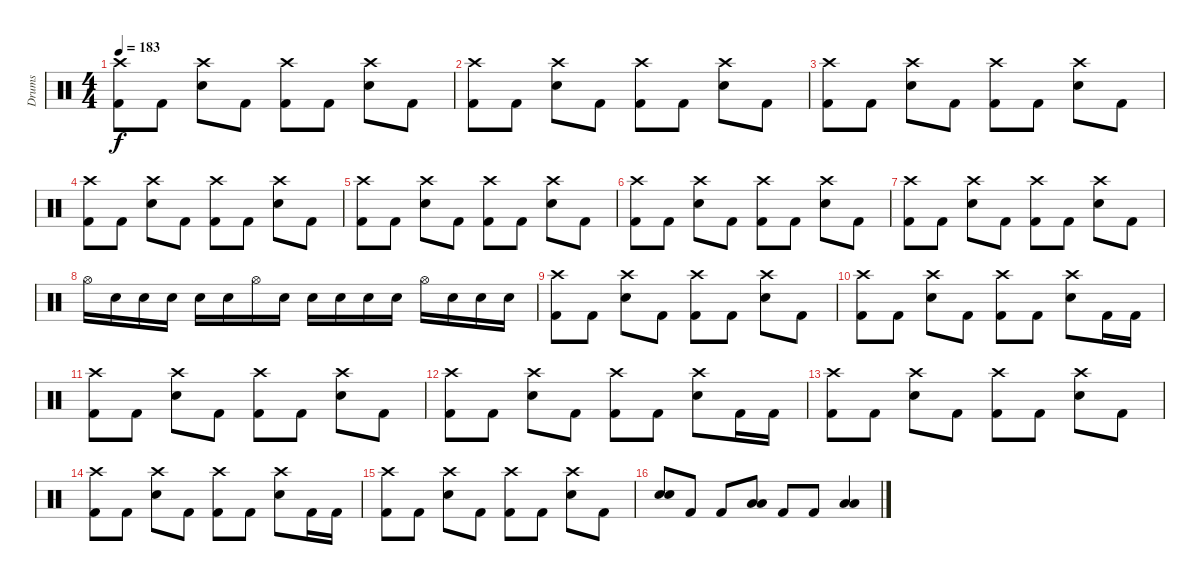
\track ("Drums" "Drums") {instrument percussion}
\staff {score}
\articulation defaults
\ts (4 4)
\tempo 183
\clef neutral
\ks c
("Crash high (hit)" "Kick (hit) 2").8{dy f} "Kick (hit) 2".8 ("Crash high (hit)" "Electric Snare (hit)").8 "Kick (hit) 2".8 ("Crash high (hit)" "Kick (hit) 2").8 "Kick (hit) 2".8 ("Crash high (hit)" "Electric Snare (hit)").8 "Kick (hit) 2".8 |
("Crash high (hit)" "Kick (hit) 2").8 "Kick (hit) 2".8 ("Crash high (hit)" "Electric Snare (hit)").8 "Kick (hit) 2".8 ("Crash high (hit)" "Kick (hit) 2").8 "Kick (hit) 2".8 ("Crash high (hit)" "Electric Snare (hit)").8 "Kick (hit) 2".8 |
("Crash high (hit)" "Kick (hit) 2").8 "Kick (hit) 2".8 ("Crash high (hit)" "Electric Snare (hit)").8 "Kick (hit) 2".8 ("Crash high (hit)" "Kick (hit) 2").8 "Kick (hit) 2".8 ("Crash high (hit)" "Electric Snare (hit)").8 "Kick (hit) 2".8 |
("Crash high (hit)" "Kick (hit) 2").8 "Kick (hit) 2".8 ("Crash high (hit)" "Electric Snare (hit)").8 "Kick (hit) 2".8 ("Crash high (hit)" "Kick (hit) 2").8 "Kick (hit) 2".8 ("Crash high (hit)" "Electric Snare (hit)").8 "Kick (hit) 2".8 |
("Crash high (hit)" "Kick (hit) 2").8 "Kick (hit) 2".8 ("Crash high (hit)" "Electric Snare (hit)").8 "Kick (hit) 2".8 ("Crash high (hit)" "Kick (hit) 2").8 "Kick (hit) 2".8 ("Crash high (hit)" "Electric Snare (hit)").8 "Kick (hit) 2".8 |
("Crash high (hit)" "Kick (hit) 2").8 "Kick (hit) 2".8 ("Crash high (hit)" "Electric Snare (hit)").8 "Kick (hit) 2".8 ("Crash high (hit)" "Kick (hit) 2").8 "Kick (hit) 2".8 ("Crash high (hit)" "Electric Snare (hit)").8 "Kick (hit) 2".8 |
("Crash high (hit)" "Kick (hit) 2").8 "Kick (hit) 2".8 ("Crash high (hit)" "Electric Snare (hit)").8 "Kick (hit) 2".8 ("Crash high (hit)" "Kick (hit) 2").8 "Kick (hit) 2".8 ("Crash high (hit)" "Electric Snare (hit)").8 "Kick (hit) 2".8 |
"Hi-Hat (open)".16 "Electric Snare (hit)".16 "Electric Snare (hit)".16 "Electric Snare (hit)".16 "Electric Snare (hit)".16 "Electric Snare (hit)".16 "Hi-Hat (open)".16 "Electric Snare (hit)".16 "Electric Snare (hit)".16 "Electric Snare (hit)".16 "Electric Snare (hit)".16 "Electric Snare (hit)".16 "Hi-Hat (open)".16 "Electric Snare (hit)".16 "Electric Snare (hit)".16 "Electric Snare (hit)".16 |
("Crash high (hit)" "Kick (hit) 2").8 "Kick (hit) 2".8 ("Crash high (hit)" "Electric Snare (hit)").8 "Kick (hit) 2".8 ("Crash high (hit)" "Kick (hit) 2").8 "Kick (hit) 2".8 ("Crash high (hit)" "Electric Snare (hit)").8 "Kick (hit) 2".8 |
("Crash high (hit)" "Kick (hit) 2").8 "Kick (hit) 2".8 ("Crash high (hit)" "Electric Snare (hit)").8 "Kick (hit) 2".8 ("Crash high (hit)" "Kick (hit) 2").8 "Kick (hit) 2".8 ("Crash high (hit)" "Electric Snare (hit)").8 "Kick (hit) 2".16 "Kick (hit) 2".16 |
("Crash high (hit)" "Kick (hit) 2").8 "Kick (hit) 2".8 ("Crash high (hit)" "Electric Snare (hit)").8 "Kick (hit) 2".8 ("Crash high (hit)" "Kick (hit) 2").8 "Kick (hit) 2".8 ("Crash high (hit)" "Electric Snare (hit)").8 "Kick (hit) 2".8 |
("Crash high (hit)" "Kick (hit) 2").8 "Kick (hit) 2".8 ("Crash high (hit)" "Electric Snare (hit)").8 "Kick (hit) 2".8 ("Crash high (hit)" "Kick (hit) 2").8 "Kick (hit) 2".8 ("Crash high (hit)" "Electric Snare (hit)").8 "Kick (hit) 2".16 "Kick (hit) 2".16 |
("Crash high (hit)" "Kick (hit) 2").8 "Kick (hit) 2".8 ("Crash high (hit)" "Electric Snare (hit)").8 "Kick (hit) 2".8 ("Crash high (hit)" "Kick (hit) 2").8 "Kick (hit) 2".8 ("Crash high (hit)" "Electric Snare (hit)").8 "Kick (hit) 2".8 |
("Crash high (hit)" "Kick (hit) 2").8 "Kick (hit) 2".8 ("Crash high (hit)" "Electric Snare (hit)").8 "Kick (hit) 2".8 ("Crash high (hit)" "Kick (hit) 2").8 "Kick (hit) 2".8 ("Crash high (hit)" "Electric Snare (hit)").8 "Kick (hit) 2".16 "Kick (hit) 2".16 |
("Crash high (hit)" "Kick (hit) 2").8 "Kick (hit) 2".8 ("Crash high (hit)" "Electric Snare (hit)").8 "Kick (hit) 2".8 ("Crash high (hit)" "Kick (hit) 2").8 "Kick (hit) 2".8 ("Crash high (hit)" "Electric Snare (hit)").8 "Kick (hit) 2".8 |
("Electric Snare (hit)" "Electric Snare (hit)").8 "Kick (hit) 2".8 "Kick (hit) 2".8 ("Low Tom (hit)" "Low Tom (hit)").8 "Kick (hit) 2".8 "Kick (hit) 2".8 ("Low Tom (hit)" "Low Floor Tom (hit)").4
